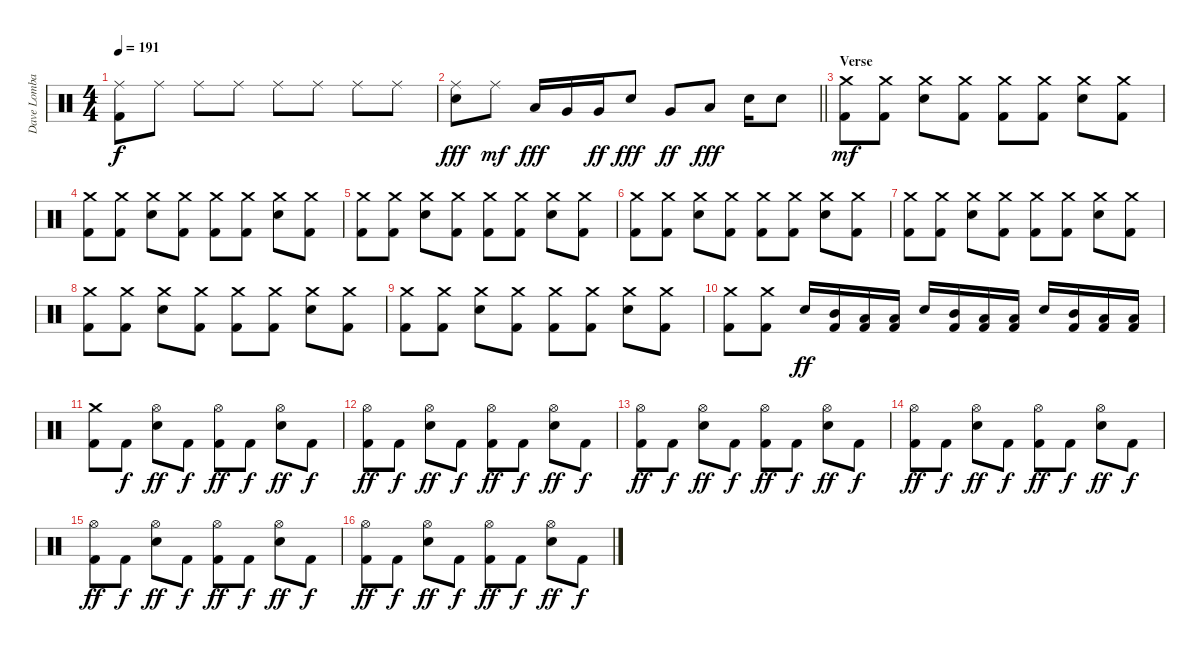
\track ("Dave Lombardo" "Dave Lomba") {instrument percussion}
\staff {score}
\articulation defaults
\ts (4 4)
\tempo 191
\clef neutral
\ks c
("Ride (middle)" "Kick (hit) 2").8{dy f} "Ride (middle)".8 "Ride (middle)".8 "Ride (middle)".8 "Ride (middle)".8 "Ride (middle)".8 "Ride (middle)".8 "Ride (middle)".8 |
\barLineRight lightlight
("Ride (middle)" "Snare (hit) 2").8{dy fff} "Ride (middle)".8{dy mf} "Low Tom (hit)".16{dy fff} "Very Low Tom (hit)".16 "Very Low Tom (hit)".16{dy ff} "Snare (hit) 2".8{dy fff} "Very Low Tom (hit)".8{dy ff} "Low Floor Tom (hit)".8{dy fff} "Snare (hit) 2".16 "Snare (hit) 2".8 |
\section ("" "Verse ")
("Crash medium (hit)" "Kick (hit) 2").8{dy mf} ("Crash medium (hit)" "Kick (hit) 2").8 ("Crash medium (hit)" "Snare (hit) 2").8 ("Crash medium (hit)" "Kick (hit) 2").8 ("Crash medium (hit)" "Kick (hit) 2").8 ("Crash medium (hit)" "Kick (hit) 2").8 ("Crash medium (hit)" "Snare (hit) 2").8 ("Crash medium (hit)" "Kick (hit) 2").8 |
("Crash medium (hit)" "Kick (hit) 2").8 ("Crash medium (hit)" "Kick (hit) 2").8 ("Crash medium (hit)" "Snare (hit) 2").8 ("Crash medium (hit)" "Kick (hit) 2").8 ("Crash medium (hit)" "Kick (hit) 2").8 ("Crash medium (hit)" "Kick (hit) 2").8 ("Crash medium (hit)" "Snare (hit) 2").8 ("Crash medium (hit)" "Kick (hit) 2").8 |
("Crash medium (hit)" "Kick (hit) 2").8 ("Crash medium (hit)" "Kick (hit) 2").8 ("Crash medium (hit)" "Snare (hit) 2").8 ("Crash medium (hit)" "Kick (hit) 2").8 ("Crash medium (hit)" "Kick (hit) 2").8 ("Crash medium (hit)" "Kick (hit) 2").8 ("Crash medium (hit)" "Snare (hit) 2").8 ("Crash medium (hit)" "Kick (hit) 2").8 |
("Crash medium (hit)" "Kick (hit) 2").8 ("Crash medium (hit)" "Kick (hit) 2").8 ("Crash medium (hit)" "Snare (hit) 2").8 ("Crash medium (hit)" "Kick (hit) 2").8 ("Crash medium (hit)" "Kick (hit) 2").8 ("Crash medium (hit)" "Kick (hit) 2").8 ("Crash medium (hit)" "Snare (hit) 2").8 ("Crash medium (hit)" "Kick (hit) 2").8 |
("Crash medium (hit)" "Kick (hit) 2").8 ("Crash medium (hit)" "Kick (hit) 2").8 ("Crash medium (hit)" "Snare (hit) 2").8 ("Crash medium (hit)" "Kick (hit) 2").8 ("Crash medium (hit)" "Kick (hit) 2").8 ("Crash medium (hit)" "Kick (hit) 2").8 ("Crash medium (hit)" "Snare (hit) 2").8 ("Crash medium (hit)" "Kick (hit) 2").8 |
("Crash medium (hit)" "Kick (hit) 2").8 ("Crash medium (hit)" "Kick (hit) 2").8 ("Crash medium (hit)" "Snare (hit) 2").8 ("Crash medium (hit)" "Kick (hit) 2").8 ("Crash medium (hit)" "Kick (hit) 2").8 ("Crash medium (hit)" "Kick (hit) 2").8 ("Crash medium (hit)" "Snare (hit) 2").8 ("Crash medium (hit)" "Kick (hit) 2").8 |
("Crash medium (hit)" "Kick (hit) 2").8 ("Crash medium (hit)" "Kick (hit) 2").8 ("Crash medium (hit)" "Snare (hit) 2").8 ("Crash medium (hit)" "Kick (hit) 2").8 ("Crash medium (hit)" "Kick (hit) 2").8 ("Crash medium (hit)" "Kick (hit) 2").8 ("Crash medium (hit)" "Snare (hit) 2").8 ("Crash medium (hit)" "Kick (hit) 2").8 |
("Crash medium (hit)" "Kick (hit) 2").8 ("Crash medium (hit)" "Kick (hit) 2").8 "Snare (hit) 2".16{dy ff} ("Mid Tom (hit)" "Kick (hit) 2").16 ("Low Tom (hit)" "Kick (hit) 2").16 ("Low Floor Tom (hit)" "Kick (hit) 2").16 "Snare (hit) 2".16 ("Mid Tom (hit)" "Kick (hit) 2").16 ("Low Tom (hit)" "Kick (hit) 2").16 ("Low Floor Tom (hit)" "Kick (hit) 2").16 "Snare (hit) 2".16 ("Mid Tom (hit)" "Kick (hit) 2").16 ("Low Tom (hit)" "Kick (hit) 2").16 ("Low Floor Tom (hit)" "Kick (hit) 2").16 |
("Crash medium (hit)" "Kick (hit) 2").8 "Kick (hit) 2".8{dy f} ("Hi-Hat (open)" "Snare (hit) 2").8{dy ff} "Kick (hit) 2".8{dy f} ("Hi-Hat (open)" "Kick (hit) 2").8{dy ff} "Kick (hit) 2".8{dy f} ("Hi-Hat (open)" "Snare (hit) 2").8{dy ff} "Kick (hit) 2".8{dy f} |
("Hi-Hat (open)" "Kick (hit) 2").8{dy ff} "Kick (hit) 2".8{dy f} ("Hi-Hat (open)" "Snare (hit) 2").8{dy ff} "Kick (hit) 2".8{dy f} ("Hi-Hat (open)" "Kick (hit) 2").8{dy ff} "Kick (hit) 2".8{dy f} ("Hi-Hat (open)" "Snare (hit) 2").8{dy ff} "Kick (hit) 2".8{dy f} |
("Hi-Hat (open)" "Kick (hit) 2").8{dy ff} "Kick (hit) 2".8{dy f} ("Hi-Hat (open)" "Snare (hit) 2").8{dy ff} "Kick (hit) 2".8{dy f} ("Hi-Hat (open)" "Kick (hit) 2").8{dy ff} "Kick (hit) 2".8{dy f} ("Hi-Hat (open)" "Snare (hit) 2").8{dy ff} "Kick (hit) 2".8{dy f} |
("Hi-Hat (open)" "Kick (hit) 2").8{dy ff} "Kick (hit) 2".8{dy f} ("Hi-Hat (open)" "Snare (hit) 2").8{dy ff} "Kick (hit) 2".8{dy f} ("Hi-Hat (open)" "Kick (hit) 2").8{dy ff} "Kick (hit) 2".8{dy f} ("Hi-Hat (open)" "Snare (hit) 2").8{dy ff} "Kick (hit) 2".8{dy f} |
("Hi-Hat (open)" "Kick (hit) 2").8{dy ff} "Kick (hit) 2".8{dy f} ("Hi-Hat (open)" "Snare (hit) 2").8{dy ff} "Kick (hit) 2".8{dy f} ("Hi-Hat (open)" "Kick (hit) 2").8{dy ff} "Kick (hit) 2".8{dy f} ("Hi-Hat (open)" "Snare (hit) 2").8{dy ff} "Kick (hit) 2".8{dy f} |
("Hi-Hat (open)" "Kick (hit) 2").8{dy ff} "Kick (hit) 2".8{dy f} ("Hi-Hat (open)" "Snare (hit) 2").8{dy ff} "Kick (hit) 2".8{dy f} ("Hi-Hat (open)" "Kick (hit) 2").8{dy ff} "Kick (hit) 2".8{dy f} ("Hi-Hat (open)" "Snare (hit) 2").8{dy ff} "Kick (hit) 2".8{dy f}
